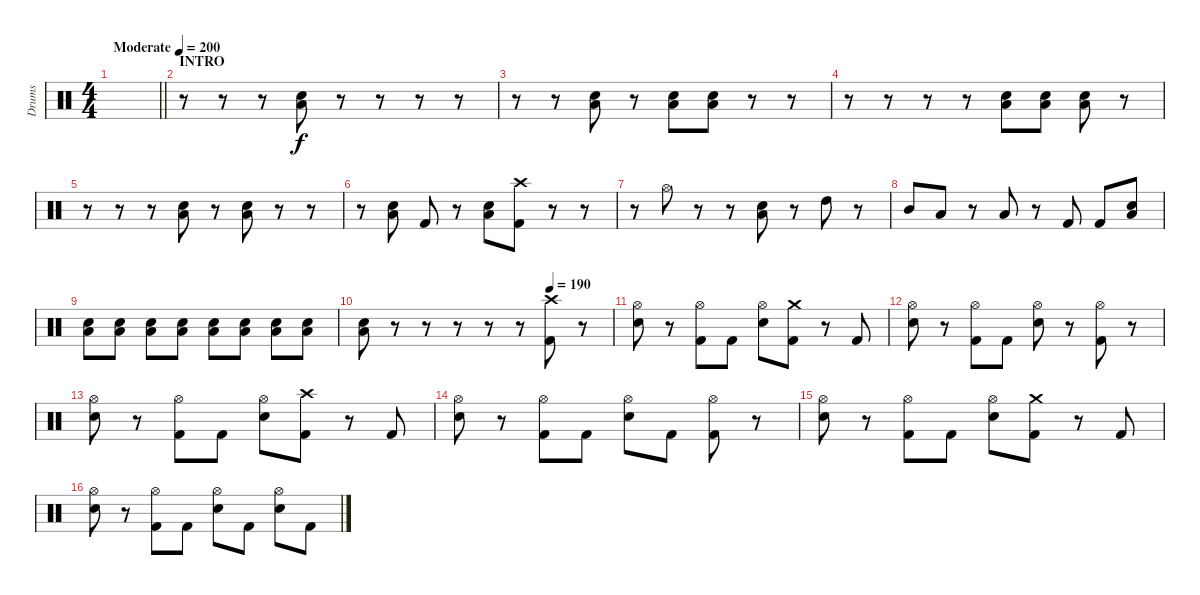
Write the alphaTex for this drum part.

\track ("Drums" "Drums") {instrument percussion}
\staff {score}
\articulation defaults
\ts (4 4)
\tempo (200 "Moderate")
\clef neutral
\barLineRight lightlight
\ks c
|
\section ("" "INTRO")
r.8 r.8 r.8 ("Low Floor Tom (hit)" "Electric Snare (hit)").8 r.8 r.8 r.8 r.8 |
r.8 r.8 ("Low Floor Tom (hit)" "Electric Snare (hit)").8 r.8 ("Low Floor Tom (hit)" "Electric Snare (hit)").8 ("Low Floor Tom (hit)" "Electric Snare (hit)").8 r.8 r.8 |
r.8 r.8 r.8 r.8 ("Low Floor Tom (hit)" "Electric Snare (hit)").8 ("Low Floor Tom (hit)" "Electric Snare (hit)").8 ("Low Floor Tom (hit)" "Electric Snare (hit)").8 r.8 |
r.8 r.8 r.8 ("Low Floor Tom (hit)" "Electric Snare (hit)").8 r.8 ("Low Floor Tom (hit)" "Electric Snare (hit)").8 r.8 r.8 |
r.8 ("Low Floor Tom (hit)" "Snare (hit) 2").8 "Kick (hit) 2".8 r.8 ("Low Floor Tom (hit)" "Snare (hit) 2").8 ("Crash high (hit)" "Kick (hit) 2").8 r.8 r.8 |
r.8 "Hi-Hat (open)".8 r.8 r.8 ("Low Floor Tom (hit)" "Snare (hit) 2").8 r.8 "High Tom (hit)".8 r.8 |
"Mid Tom (hit)".8 "Low Tom (hit)".8 r.8 "Low Floor Tom (hit)".8 r.8 "Kick (hit) 2".8 "Kick (hit) 2".8 ("Low Floor Tom (hit)" "Snare (hit) 2").8 |
("Low Floor Tom (hit)" "Snare (hit) 2").8 ("Low Floor Tom (hit)" "Snare (hit) 2").8 ("Low Floor Tom (hit)" "Snare (hit) 2").8 ("Low Floor Tom (hit)" "Snare (hit) 2").8 ("Low Floor Tom (hit)" "Snare (hit) 2").8 ("Low Floor Tom (hit)" "Snare (hit) 2").8 ("Low Floor Tom (hit)" "Snare (hit) 2").8 ("Low Floor Tom (hit)" "Snare (hit) 2").8 |
\tempo (190 0.75)
("Low Floor Tom (hit)" "Snare (hit) 2").8 r.8 r.8 r.8 r.8 r.8 ("Kick (hit) 2" "Crash high (hit)").8 r.8 |
("Snare (hit) 2" "Hi-Hat (open)").8 r.8 ("Kick (hit) 2" "Hi-Hat (open)").8 "Kick (hit) 2".8 ("Snare (hit) 2" "Hi-Hat (open)").8 ("Kick (hit) 2" "Crash medium (hit)").8 r.8 "Kick (hit) 2".8 |
("Snare (hit) 2" "Hi-Hat (open)").8 r.8 ("Kick (hit) 2" "Hi-Hat (open)").8 "Kick (hit) 2".8 ("Snare (hit) 2" "Hi-Hat (open)").8 r.8 ("Kick (hit) 2" "Hi-Hat (open)").8 r.8 |
("Snare (hit) 2" "Hi-Hat (open)").8 r.8 ("Kick (hit) 2" "Hi-Hat (open)").8 "Kick (hit) 2".8 ("Snare (hit) 2" "Hi-Hat (open)").8 ("Kick (hit) 2" "Crash high (hit)").8 r.8 "Kick (hit) 2".8 |
("Snare (hit) 2" "Hi-Hat (open)").8 r.8 ("Kick (hit) 2" "Hi-Hat (open)").8 "Kick (hit) 2".8 ("Snare (hit) 2" "Hi-Hat (open)").8 "Kick (hit) 2".8 ("Kick (hit) 2" "Hi-Hat (open)").8 r.8 |
("Snare (hit) 2" "Hi-Hat (open)").8 r.8 ("Kick (hit) 2" "Hi-Hat (open)").8 "Kick (hit) 2".8 ("Snare (hit) 2" "Hi-Hat (open)").8 ("Kick (hit) 2" "Crash medium (hit)").8 r.8 "Kick (hit) 2".8 |
("Snare (hit) 2" "Hi-Hat (open)").8 r.8 ("Kick (hit) 2" "Hi-Hat (open)").8 "Kick (hit) 2".8 ("Snare (hit) 2" "Hi-Hat (open)").8 "Kick (hit) 2".8 ("Snare (hit) 2" "Hi-Hat (open)").8 "Kick (hit) 2".8
